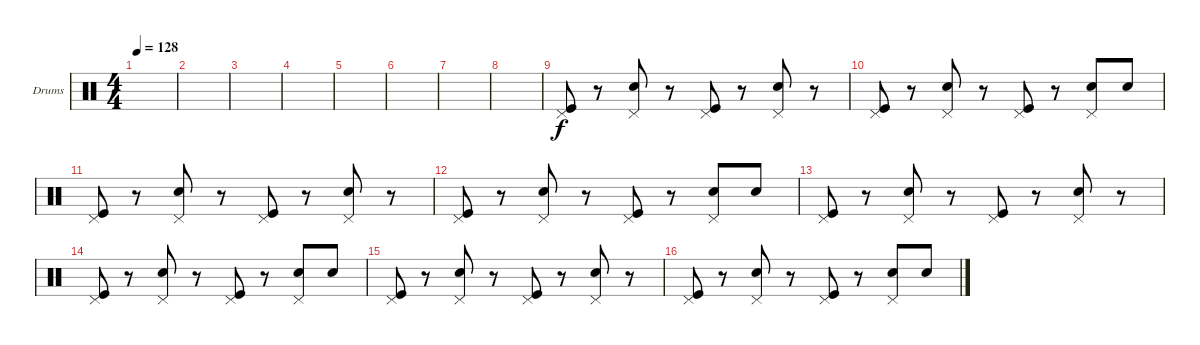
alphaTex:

\defaultSystemsLayout 4
\bracketExtendMode groupsimilarinstruments
\firstSystemTrackNameOrientation horizontal
\otherSystemsTrackNameOrientation horizontal
\track ("Drumkit" "Drums") {instrument percussion}
\staff {score}
\articulation defaults
\ts (4 4)
\tempo 128
\clef neutral
\ks c
|
|
|
|
|
|
|
|
("Kick (hit)" "Pedal Hi-Hat (hit)").8 r.8 ("Pedal Hi-Hat (hit)" "Snare (hit) 2").8 r.8 ("Pedal Hi-Hat (hit)" "Kick (hit)").8 r.8 ("Pedal Hi-Hat (hit)" "Snare (hit) 2").8 r.8 |
("Pedal Hi-Hat (hit)" "Kick (hit)").8 r.8 ("Pedal Hi-Hat (hit)" "Snare (hit) 2").8 r.8 ("Kick (hit)" "Pedal Hi-Hat (hit)").8 r.8 ("Pedal Hi-Hat (hit)" "Snare (hit) 2").8 "Snare (hit) 2".8 |
("Kick (hit)" "Pedal Hi-Hat (hit)").8 r.8 ("Pedal Hi-Hat (hit)" "Snare (hit) 2").8 r.8 ("Pedal Hi-Hat (hit)" "Kick (hit)").8 r.8 ("Pedal Hi-Hat (hit)" "Snare (hit) 2").8 r.8 |
("Pedal Hi-Hat (hit)" "Kick (hit)").8 r.8 ("Pedal Hi-Hat (hit)" "Snare (hit) 2").8 r.8 ("Kick (hit)" "Pedal Hi-Hat (hit)").8 r.8 ("Pedal Hi-Hat (hit)" "Snare (hit) 2").8 "Snare (hit) 2".8 |
("Kick (hit)" "Pedal Hi-Hat (hit)").8 r.8 ("Pedal Hi-Hat (hit)" "Snare (hit) 2").8 r.8 ("Pedal Hi-Hat (hit)" "Kick (hit)").8 r.8 ("Pedal Hi-Hat (hit)" "Snare (hit) 2").8 r.8 |
("Pedal Hi-Hat (hit)" "Kick (hit)").8 r.8 ("Pedal Hi-Hat (hit)" "Snare (hit) 2").8 r.8 ("Kick (hit)" "Pedal Hi-Hat (hit)").8 r.8 ("Pedal Hi-Hat (hit)" "Snare (hit) 2").8 "Snare (hit) 2".8 |
("Kick (hit)" "Pedal Hi-Hat (hit)").8 r.8 ("Pedal Hi-Hat (hit)" "Snare (hit) 2").8 r.8 ("Pedal Hi-Hat (hit)" "Kick (hit)").8 r.8 ("Pedal Hi-Hat (hit)" "Snare (hit) 2").8 r.8 |
("Pedal Hi-Hat (hit)" "Kick (hit)").8 r.8 ("Pedal Hi-Hat (hit)" "Snare (hit) 2").8 r.8 ("Kick (hit)" "Pedal Hi-Hat (hit)").8 r.8 ("Pedal Hi-Hat (hit)" "Snare (hit) 2").8 "Snare (hit) 2".8
